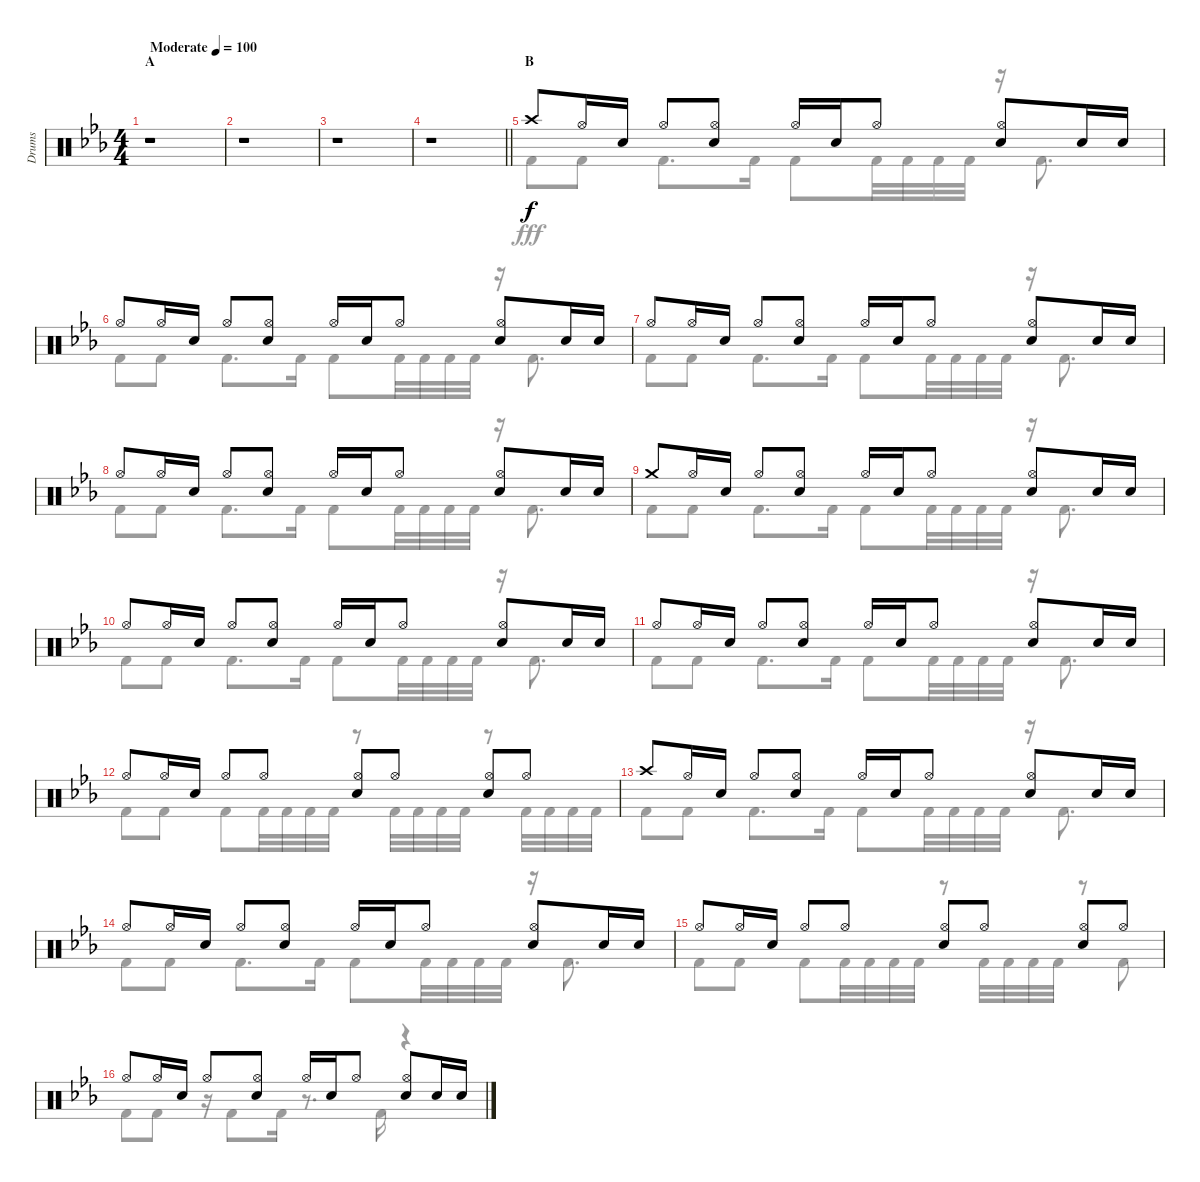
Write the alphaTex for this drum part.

\track ("Drums" "Drums") {instrument percussion}
\staff {score}
\articulation defaults
\voice
\ts (4 4)
\section ("" "A")
\tempo (100 "Moderate")
\clef neutral
\ks eb
r.1{dy f} |
r.1 |
r.1 |
\barLineRight lightlight
r.1 |
\section ("" "B")
"Crash high (hit)".8 "Hi-Hat (open)".16 "Snare (hit) 2".16 "Hi-Hat (open)".8 ("Hi-Hat (open)" "Snare (hit) 2").8 "Hi-Hat (open)".16 "Snare (hit) 2".16 "Hi-Hat (open)".8 ("Hi-Hat (open)" "Snare (hit) 2").8 "Snare (hit) 2".16 "Snare (hit) 2".16 |
"Hi-Hat (open)".8 "Hi-Hat (open)".16 "Snare (hit) 2".16 "Hi-Hat (open)".8 ("Hi-Hat (open)" "Snare (hit) 2").8 "Hi-Hat (open)".16 "Snare (hit) 2".16 "Hi-Hat (open)".8 ("Hi-Hat (open)" "Snare (hit) 2").8 "Snare (hit) 2".16 "Snare (hit) 2".16 |
"Hi-Hat (open)".8 "Hi-Hat (open)".16 "Snare (hit) 2".16 "Hi-Hat (open)".8 ("Hi-Hat (open)" "Snare (hit) 2").8 "Hi-Hat (open)".16 "Snare (hit) 2".16 "Hi-Hat (open)".8 ("Hi-Hat (open)" "Snare (hit) 2").8 "Snare (hit) 2".16 "Snare (hit) 2".16 |
"Hi-Hat (open)".8 "Hi-Hat (open)".16 "Snare (hit) 2".16 "Hi-Hat (open)".8 ("Hi-Hat (open)" "Snare (hit) 2").8 "Hi-Hat (open)".16 "Snare (hit) 2".16 "Hi-Hat (open)".8 ("Hi-Hat (open)" "Snare (hit) 2").8 "Snare (hit) 2".16 "Snare (hit) 2".16 |
"Crash medium (hit)".8 "Hi-Hat (open)".16 "Snare (hit) 2".16 "Hi-Hat (open)".8 ("Hi-Hat (open)" "Snare (hit) 2").8 "Hi-Hat (open)".16 "Snare (hit) 2".16 "Hi-Hat (open)".8 ("Hi-Hat (open)" "Snare (hit) 2").8 "Snare (hit) 2".16 "Snare (hit) 2".16 |
"Hi-Hat (open)".8 "Hi-Hat (open)".16 "Snare (hit) 2".16 "Hi-Hat (open)".8 ("Hi-Hat (open)" "Snare (hit) 2").8 "Hi-Hat (open)".16 "Snare (hit) 2".16 "Hi-Hat (open)".8 ("Hi-Hat (open)" "Snare (hit) 2").8 "Snare (hit) 2".16 "Snare (hit) 2".16 |
"Hi-Hat (open)".8 "Hi-Hat (open)".16 "Snare (hit) 2".16 "Hi-Hat (open)".8 ("Hi-Hat (open)" "Snare (hit) 2").8 "Hi-Hat (open)".16 "Snare (hit) 2".16 "Hi-Hat (open)".8 ("Hi-Hat (open)" "Snare (hit) 2").8 "Snare (hit) 2".16 "Snare (hit) 2".16 |
"Hi-Hat (open)".8 "Hi-Hat (open)".16 "Snare (hit) 2".16 "Hi-Hat (open)".8 "Hi-Hat (open)".8 ("Hi-Hat (open)" "Snare (hit) 2").8 "Hi-Hat (open)".8 ("Hi-Hat (open)" "Snare (hit) 2").8 "Hi-Hat (open)".8 |
"Crash high (hit)".8 "Hi-Hat (open)".16 "Snare (hit) 2".16 "Hi-Hat (open)".8 ("Hi-Hat (open)" "Snare (hit) 2").8 "Hi-Hat (open)".16 "Snare (hit) 2".16 "Hi-Hat (open)".8 ("Hi-Hat (open)" "Snare (hit) 2").8 "Snare (hit) 2".16 "Snare (hit) 2".16 |
"Hi-Hat (open)".8 "Hi-Hat (open)".16 "Snare (hit) 2".16 "Hi-Hat (open)".8 ("Hi-Hat (open)" "Snare (hit) 2").8 "Hi-Hat (open)".16 "Snare (hit) 2".16 "Hi-Hat (open)".8 ("Hi-Hat (open)" "Snare (hit) 2").8 "Snare (hit) 2".16 "Snare (hit) 2".16 |
"Hi-Hat (open)".8 "Hi-Hat (open)".16 "Snare (hit) 2".16 "Hi-Hat (open)".8 "Hi-Hat (open)".8 ("Hi-Hat (open)" "Snare (hit) 2").8 "Hi-Hat (open)".8 ("Hi-Hat (open)" "Snare (hit) 2").8 "Hi-Hat (open)".8 |
"Hi-Hat (open)".8 "Hi-Hat (open)".16 "Snare (hit) 2".16 "Hi-Hat (open)".8 ("Hi-Hat (open)" "Snare (hit) 2").8 "Hi-Hat (open)".16 "Snare (hit) 2".16 "Hi-Hat (open)".8 ("Hi-Hat (open)" "Snare (hit) 2").8 "Snare (hit) 2".16 "Snare (hit) 2".16
\voice
\clef neutral
\ottava regular
\simile none
\ks eb
r.1{dy fff} |
r.1 |
r.1 |
\barLineRight lightlight
r.1 |
"Kick (hit) 2".8 "Kick (hit) 2".8 "Kick (hit) 2".8{d} "Kick (hit) 2".16 "Kick (hit) 2".8 "Kick (hit) 2".32 "Kick (hit) 2".32 "Kick (hit) 2".32 "Kick (hit) 2".32 r.16 "Kick (hit) 2".8{d} |
"Kick (hit) 2".8 "Kick (hit) 2".8 "Kick (hit) 2".8{d} "Kick (hit) 2".16 "Kick (hit) 2".8 "Kick (hit) 2".32 "Kick (hit) 2".32 "Kick (hit) 2".32 "Kick (hit) 2".32 r.16 "Kick (hit) 2".8{d} |
"Kick (hit) 2".8 "Kick (hit) 2".8 "Kick (hit) 2".8{d} "Kick (hit) 2".16 "Kick (hit) 2".8 "Kick (hit) 2".32 "Kick (hit) 2".32 "Kick (hit) 2".32 "Kick (hit) 2".32 r.16 "Kick (hit) 2".8{d} |
"Kick (hit) 2".8 "Kick (hit) 2".8 "Kick (hit) 2".8{d} "Kick (hit) 2".16 "Kick (hit) 2".8 "Kick (hit) 2".32 "Kick (hit) 2".32 "Kick (hit) 2".32 "Kick (hit) 2".32 r.16 "Kick (hit) 2".8{d} |
"Kick (hit) 2".8 "Kick (hit) 2".8 "Kick (hit) 2".8{d} "Kick (hit) 2".16 "Kick (hit) 2".8 "Kick (hit) 2".32 "Kick (hit) 2".32 "Kick (hit) 2".32 "Kick (hit) 2".32 r.16 "Kick (hit) 2".8{d} |
"Kick (hit) 2".8 "Kick (hit) 2".8 "Kick (hit) 2".8{d} "Kick (hit) 2".16 "Kick (hit) 2".8 "Kick (hit) 2".32 "Kick (hit) 2".32 "Kick (hit) 2".32 "Kick (hit) 2".32 r.16 "Kick (hit) 2".8{d} |
"Kick (hit) 2".8 "Kick (hit) 2".8 "Kick (hit) 2".8{d} "Kick (hit) 2".16 "Kick (hit) 2".8 "Kick (hit) 2".32 "Kick (hit) 2".32 "Kick (hit) 2".32 "Kick (hit) 2".32 r.16 "Kick (hit) 2".8{d} |
"Kick (hit) 2".8 "Kick (hit) 2".8 "Kick (hit) 2".8 "Kick (hit) 2".32 "Kick (hit) 2".32 "Kick (hit) 2".32 "Kick (hit) 2".32 r.8 "Kick (hit) 2".32 "Kick (hit) 2".32 "Kick (hit) 2".32 "Kick (hit) 2".32 r.8 "Kick (hit) 2".32 "Kick (hit) 2".32 "Kick (hit) 2".32 "Kick (hit) 2".32 |
"Kick (hit) 2".8 "Kick (hit) 2".8 "Kick (hit) 2".8{d} "Kick (hit) 2".16 "Kick (hit) 2".8 "Kick (hit) 2".32 "Kick (hit) 2".32 "Kick (hit) 2".32 "Kick (hit) 2".32 r.16 "Kick (hit) 2".8{d} |
"Kick (hit) 2".8 "Kick (hit) 2".8 "Kick (hit) 2".8{d} "Kick (hit) 2".16 "Kick (hit) 2".8 "Kick (hit) 2".32 "Kick (hit) 2".32 "Kick (hit) 2".32 "Kick (hit) 2".32 r.16 "Kick (hit) 2".8{d} |
"Kick (hit) 2".8 "Kick (hit) 2".8 "Kick (hit) 2".8 "Kick (hit) 2".32 "Kick (hit) 2".32 "Kick (hit) 2".32 "Kick (hit) 2".32 r.8 "Kick (hit) 2".32 "Kick (hit) 2".32 "Kick (hit) 2".32 "Kick (hit) 2".32 r.8 "Kick (hit) 2".8 |
"Kick (hit) 2".8 "Kick (hit) 2".8 r.16 "Kick (hit) 2".8 "Kick (hit) 2".16 r.8{d} "Kick (hit) 2".16 r.4
